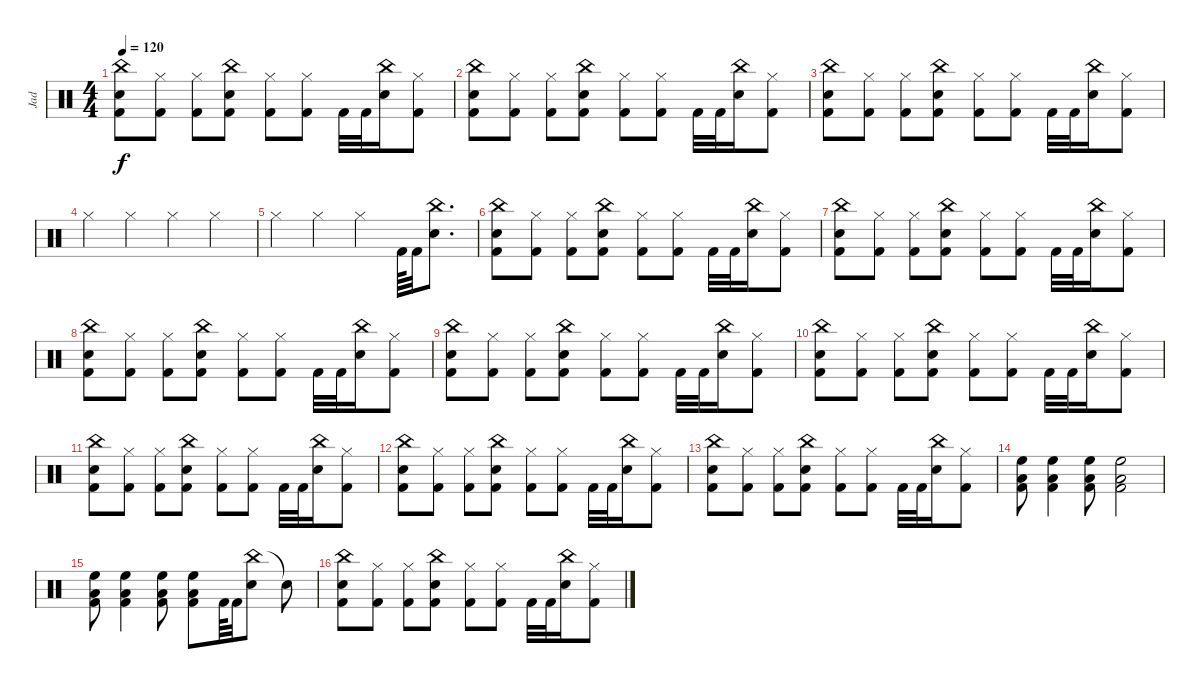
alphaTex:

\track ("Jad" "Jad") {instrument percussion}
\staff {score}
\articulation defaults
\ts (4 4)
\tempo 120
\clef neutral
\ks c
("Electric Snare (hit)" "Kick (hit) 2" "China (hit)").8{dy f} ("Hi-Hat (closed)" "Kick (hit) 2").8 ("Hi-Hat (closed)" "Kick (hit) 2").8 ("Electric Snare (hit)" "Kick (hit) 2" "China (hit)").8 ("Hi-Hat (closed)" "Kick (hit) 2").8 ("Hi-Hat (closed)" "Kick (hit) 2").8 "Kick (hit) 2".32 "Kick (hit) 2".32 ("Electric Snare (hit)" "China (hit)").16 ("Hi-Hat (closed)" "Kick (hit) 2").8 |
("Electric Snare (hit)" "Kick (hit) 2" "China (hit)").8 ("Hi-Hat (closed)" "Kick (hit) 2").8 ("Hi-Hat (closed)" "Kick (hit) 2").8 ("Electric Snare (hit)" "Kick (hit) 2" "China (hit)").8 ("Hi-Hat (closed)" "Kick (hit) 2").8 ("Hi-Hat (closed)" "Kick (hit) 2").8 "Kick (hit) 2".32 "Kick (hit) 2".32 ("Electric Snare (hit)" "China (hit)").16 ("Hi-Hat (closed)" "Kick (hit) 2").8 |
("Electric Snare (hit)" "Kick (hit) 2" "China (hit)").8 ("Hi-Hat (closed)" "Kick (hit) 2").8 ("Hi-Hat (closed)" "Kick (hit) 2").8 ("Electric Snare (hit)" "Kick (hit) 2" "China (hit)").8 ("Hi-Hat (closed)" "Kick (hit) 2").8 ("Hi-Hat (closed)" "Kick (hit) 2").8 "Kick (hit) 2".32 "Kick (hit) 2".32 ("Electric Snare (hit)" "China (hit)").16 ("Hi-Hat (closed)" "Kick (hit) 2").8 |
"Hi-Hat (closed)".4 "Hi-Hat (closed)".4 "Hi-Hat (closed)".4 "Hi-Hat (closed)".4 |
"Hi-Hat (closed)".4 "Hi-Hat (closed)".4 "Hi-Hat (closed)".4 "Kick (hit) 2".64 "Kick (hit) 2".32 ("China (hit)" "Electric Snare (hit)").8{d} |
("Electric Snare (hit)" "Kick (hit) 2" "China (hit)").8 ("Hi-Hat (closed)" "Kick (hit) 2").8 ("Hi-Hat (closed)" "Kick (hit) 2").8 ("Electric Snare (hit)" "Kick (hit) 2" "China (hit)").8 ("Hi-Hat (closed)" "Kick (hit) 2").8 ("Hi-Hat (closed)" "Kick (hit) 2").8 "Kick (hit) 2".32 "Kick (hit) 2".32 ("Electric Snare (hit)" "China (hit)").16 ("Hi-Hat (closed)" "Kick (hit) 2").8 |
("Electric Snare (hit)" "Kick (hit) 2" "China (hit)").8 ("Hi-Hat (closed)" "Kick (hit) 2").8 ("Hi-Hat (closed)" "Kick (hit) 2").8 ("Electric Snare (hit)" "Kick (hit) 2" "China (hit)").8 ("Hi-Hat (closed)" "Kick (hit) 2").8 ("Hi-Hat (closed)" "Kick (hit) 2").8 "Kick (hit) 2".32 "Kick (hit) 2".32 ("Electric Snare (hit)" "China (hit)").16 ("Hi-Hat (closed)" "Kick (hit) 2").8 |
("Electric Snare (hit)" "Kick (hit) 2" "China (hit)").8 ("Hi-Hat (closed)" "Kick (hit) 2").8 ("Hi-Hat (closed)" "Kick (hit) 2").8 ("Electric Snare (hit)" "Kick (hit) 2" "China (hit)").8 ("Hi-Hat (closed)" "Kick (hit) 2").8 ("Hi-Hat (closed)" "Kick (hit) 2").8 "Kick (hit) 2".32 "Kick (hit) 2".32 ("Electric Snare (hit)" "China (hit)").16 ("Hi-Hat (closed)" "Kick (hit) 2").8 |
("Electric Snare (hit)" "Kick (hit) 2" "China (hit)").8 ("Hi-Hat (closed)" "Kick (hit) 2").8 ("Hi-Hat (closed)" "Kick (hit) 2").8 ("Electric Snare (hit)" "Kick (hit) 2" "China (hit)").8 ("Hi-Hat (closed)" "Kick (hit) 2").8 ("Hi-Hat (closed)" "Kick (hit) 2").8 "Kick (hit) 2".32 "Kick (hit) 2".32 ("Electric Snare (hit)" "China (hit)").16 ("Hi-Hat (closed)" "Kick (hit) 2").8 |
("Electric Snare (hit)" "Kick (hit) 2" "China (hit)").8 ("Hi-Hat (closed)" "Kick (hit) 2").8 ("Hi-Hat (closed)" "Kick (hit) 2").8 ("Electric Snare (hit)" "Kick (hit) 2" "China (hit)").8 ("Hi-Hat (closed)" "Kick (hit) 2").8 ("Hi-Hat (closed)" "Kick (hit) 2").8 "Kick (hit) 2".32 "Kick (hit) 2".32 ("Electric Snare (hit)" "China (hit)").16 ("Hi-Hat (closed)" "Kick (hit) 2").8 |
("Electric Snare (hit)" "Kick (hit) 2" "China (hit)").8 ("Hi-Hat (closed)" "Kick (hit) 2").8 ("Hi-Hat (closed)" "Kick (hit) 2").8 ("Electric Snare (hit)" "Kick (hit) 2" "China (hit)").8 ("Hi-Hat (closed)" "Kick (hit) 2").8 ("Hi-Hat (closed)" "Kick (hit) 2").8 "Kick (hit) 2".32 "Kick (hit) 2".32 ("Electric Snare (hit)" "China (hit)").16 ("Hi-Hat (closed)" "Kick (hit) 2").8 |
("Electric Snare (hit)" "Kick (hit) 2" "China (hit)").8 ("Hi-Hat (closed)" "Kick (hit) 2").8 ("Hi-Hat (closed)" "Kick (hit) 2").8 ("Electric Snare (hit)" "Kick (hit) 2" "China (hit)").8 ("Hi-Hat (closed)" "Kick (hit) 2").8 ("Hi-Hat (closed)" "Kick (hit) 2").8 "Kick (hit) 2".32 "Kick (hit) 2".32 ("Electric Snare (hit)" "China (hit)").16 ("Hi-Hat (closed)" "Kick (hit) 2").8 |
("Electric Snare (hit)" "Kick (hit) 2" "China (hit)").8 ("Hi-Hat (closed)" "Kick (hit) 2").8 ("Hi-Hat (closed)" "Kick (hit) 2").8 ("Electric Snare (hit)" "Kick (hit) 2" "China (hit)").8 ("Hi-Hat (closed)" "Kick (hit) 2").8 ("Hi-Hat (closed)" "Kick (hit) 2").8 "Kick (hit) 2".32 "Kick (hit) 2".32 ("Electric Snare (hit)" "China (hit)").16 ("Hi-Hat (closed)" "Kick (hit) 2").8 |
("Low Tom (hit)" "High Floor Tom (hit)" "Kick (hit) 2").8 ("Low Tom (hit)" "High Floor Tom (hit)" "Kick (hit) 2").4 ("Low Tom (hit)" "High Floor Tom (hit)" "Kick (hit) 2").8 ("Low Tom (hit)" "High Floor Tom (hit)" "Kick (hit) 2").2 |
("Low Tom (hit)" "High Floor Tom (hit)" "Kick (hit) 2").8 ("Low Tom (hit)" "High Floor Tom (hit)" "Kick (hit) 2").4 ("Low Tom (hit)" "High Floor Tom (hit)" "Kick (hit) 2").8 ("Low Tom (hit)" "High Floor Tom (hit)" "Kick (hit) 2").8 "Kick (hit) 2".64 "Kick (hit) 2".32 ("China (hit)" "Electric Snare (hit)").8 "Snare (hit)"{t}.8 |
("Electric Snare (hit)" "Kick (hit) 2" "China (hit)").8 ("Hi-Hat (closed)" "Kick (hit) 2").8 ("Hi-Hat (closed)" "Kick (hit) 2").8 ("Electric Snare (hit)" "Kick (hit) 2" "China (hit)").8 ("Hi-Hat (closed)" "Kick (hit) 2").8 ("Hi-Hat (closed)" "Kick (hit) 2").8 "Kick (hit) 2".32 "Kick (hit) 2".32 ("Electric Snare (hit)" "China (hit)").16 ("Hi-Hat (closed)" "Kick (hit) 2").8
